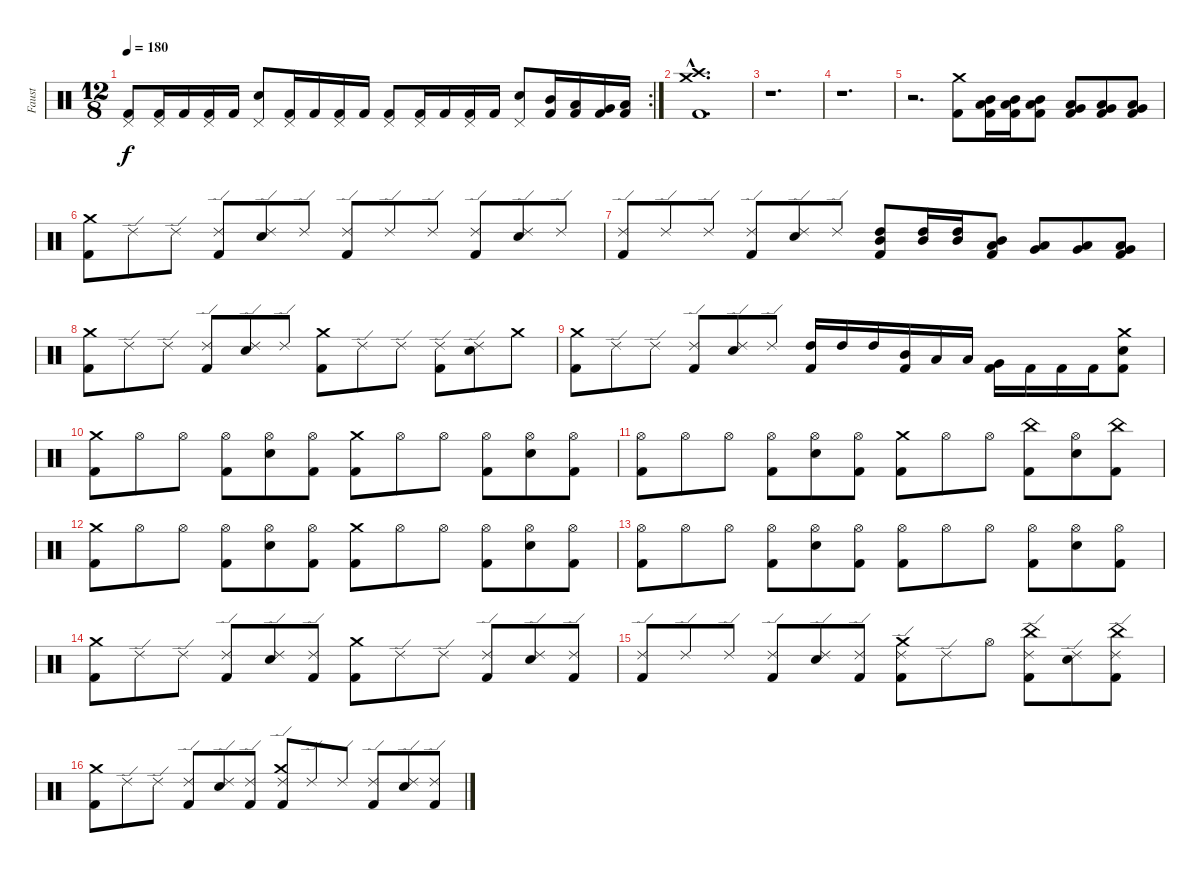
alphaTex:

\track ("Faust" "Faust") {instrument percussion}
\staff {score}
\articulation defaults
\rc 2
\ts (12 8)
\tempo 180
\clef neutral
\ks c
("Pedal Hi-Hat (hit)" "Kick (hit) 2").8{dy f} ("Pedal Hi-Hat (hit)" "Kick (hit) 2").16 "Kick (hit) 2".16 ("Pedal Hi-Hat (hit)" "Kick (hit) 2").16 "Kick (hit) 2".16 ("Pedal Hi-Hat (hit)" "Electric Snare (hit)").8 ("Pedal Hi-Hat (hit)" "Kick (hit) 2").16 "Kick (hit) 2".16 ("Pedal Hi-Hat (hit)" "Kick (hit) 2").16 "Kick (hit) 2".16 ("Pedal Hi-Hat (hit)" "Kick (hit) 2").8 ("Pedal Hi-Hat (hit)" "Kick (hit) 2").16 "Kick (hit) 2".16 ("Pedal Hi-Hat (hit)" "Kick (hit) 2").16 "Kick (hit) 2".16 ("Pedal Hi-Hat (hit)" "Electric Snare (hit)").8 ("Mid Tom (hit)" "Kick (hit) 2").16 ("Low Tom (hit)" "Kick (hit) 2").16 ("Very Low Tom (hit)" "Kick (hit) 2").16 ("Low Floor Tom (hit)" "Kick (hit) 2").16 |
("Crash high (hit)"{hac} "Crash medium (hit)"{hac} "Kick (hit) 2"{hac}).1{d} |
r.1{d} |
r.1{d} |
r.2{d} ("Crash medium (hit)" "Kick (hit) 2").8 ("Low Tom (hit)" "Mid Tom (hit)" "Kick (hit) 2").16 ("Low Tom (hit)" "Mid Tom (hit)" "Kick (hit) 2").16 ("Low Tom (hit)" "Mid Tom (hit)" "Kick (hit) 2").8 ("Very Low Tom (hit)" "Low Tom (hit)" "Kick (hit) 2").8 ("Low Floor Tom (hit)" "Very Low Tom (hit)" "Kick (hit) 2").8 ("Low Floor Tom (hit)" "Very Low Tom (hit)" "Kick (hit) 2").8 |
("Crash medium (hit)" "Kick (hit) 2").8 "Ride (edge) 2".8 "Ride (edge) 2".8 ("Ride (edge) 2" "Kick (hit) 2").8 ("Ride (edge) 2" "Electric Snare (hit)").8 "Ride (edge) 2".8 ("Ride (edge) 2" "Kick (hit) 2").8 "Ride (edge) 2".8 "Ride (edge) 2".8 ("Ride (edge) 2" "Kick (hit) 2").8 ("Ride (edge) 2" "Electric Snare (hit)").8 "Ride (edge) 2".8 |
("Ride (edge) 2" "Kick (hit) 2").8 "Ride (edge) 2".8 "Ride (edge) 2".8 ("Ride (edge) 2" "Kick (hit) 2").8 ("Ride (edge) 2" "Electric Snare (hit)").8 "Ride (edge) 2".8 ("Mid Tom (hit)" "High Tom (hit)" "Kick (hit) 2").8 ("Mid Tom (hit)" "High Tom (hit)").16 ("Mid Tom (hit)" "High Tom (hit)").16 ("Low Tom (hit)" "Mid Tom (hit)" "Kick (hit) 2").8 ("Very Low Tom (hit)" "Low Tom (hit)").8 ("Very Low Tom (hit)" "Low Tom (hit)").8 ("Low Floor Tom (hit)" "Very Low Tom (hit)" "Kick (hit) 2").8 |
("Crash medium (hit)" "Kick (hit) 2").8 "Ride (edge) 2".8 "Ride (edge) 2".8 ("Ride (edge) 2" "Kick (hit) 2").8 ("Ride (edge) 2" "Electric Snare (hit)").8 "Ride (edge) 2".8 ("Crash medium (hit)" "Kick (hit) 2").8 "Ride (edge) 2".8 "Ride (edge) 2".8 ("Ride (edge) 2" "Kick (hit) 2").8 ("Ride (edge) 2" "Electric Snare (hit)").8 "Crash medium (hit)".8 |
("Crash medium (hit)" "Kick (hit) 2").8 "Ride (edge) 2".8 "Ride (edge) 2".8 ("Ride (edge) 2" "Kick (hit) 2").8 ("Ride (edge) 2" "Electric Snare (hit)").8 "Ride (edge) 2".8 ("High Tom (hit)" "Kick (hit) 2").16 "High Tom (hit)".16 "High Tom (hit)".16 ("Mid Tom (hit)" "Kick (hit) 2").16 "Low Tom (hit)".16 "Low Tom (hit)".16 ("Very Low Tom (hit)" "Kick (hit) 2").16 "Kick (hit) 2".16 "Kick (hit) 2".16 "Kick (hit) 2".16 ("Crash medium (hit)" "Electric Snare (hit)" "Kick (hit) 2").8 |
("Crash medium (hit)" "Kick (hit) 2").8 "Hi-Hat (open)".8 "Hi-Hat (open)".8 ("Hi-Hat (open)" "Kick (hit) 2").8 ("Hi-Hat (open)" "Electric Snare (hit)").8 ("Hi-Hat (open)" "Kick (hit) 2").8 ("Crash medium (hit)" "Kick (hit) 2").8 "Hi-Hat (open)".8 "Hi-Hat (open)".8 ("Hi-Hat (open)" "Kick (hit) 2").8 ("Hi-Hat (open)" "Electric Snare (hit)").8 ("Hi-Hat (open)" "Kick (hit) 2").8 |
("Hi-Hat (open)" "Kick (hit) 2").8 "Hi-Hat (open)".8 "Hi-Hat (open)".8 ("Hi-Hat (open)" "Kick (hit) 2").8 ("Hi-Hat (open)" "Electric Snare (hit)").8 ("Hi-Hat (open)" "Kick (hit) 2").8 ("Crash medium (hit)" "Kick (hit) 2").8 "Hi-Hat (open)".8 "Hi-Hat (open)".8 ("China (hit)" "Kick (hit) 2").8 ("Hi-Hat (open)" "Electric Snare (hit)").8 ("China (hit)" "Kick (hit) 2").8 |
("Crash medium (hit)" "Kick (hit) 2").8 "Hi-Hat (open)".8 "Hi-Hat (open)".8 ("Hi-Hat (open)" "Kick (hit) 2").8 ("Hi-Hat (open)" "Electric Snare (hit)").8 ("Hi-Hat (open)" "Kick (hit) 2").8 ("Crash medium (hit)" "Kick (hit) 2").8 "Hi-Hat (open)".8 "Hi-Hat (open)".8 ("Hi-Hat (open)" "Kick (hit) 2").8 ("Hi-Hat (open)" "Electric Snare (hit)").8 ("Hi-Hat (open)" "Kick (hit) 2").8 |
("Hi-Hat (open)" "Kick (hit) 2").8 "Hi-Hat (open)".8 "Hi-Hat (open)".8 ("Hi-Hat (open)" "Kick (hit) 2").8 ("Hi-Hat (open)" "Electric Snare (hit)").8 ("Hi-Hat (open)" "Kick (hit) 2").8 ("Hi-Hat (open)" "Kick (hit) 2").8 "Hi-Hat (open)".8 "Hi-Hat (open)".8 ("Hi-Hat (open)" "Kick (hit) 2").8 ("Hi-Hat (open)" "Electric Snare (hit)").8 ("Hi-Hat (open)" "Kick (hit) 2").8 |
("Crash medium (hit)" "Kick (hit) 2").8 "Ride (edge) 2".8 "Ride (edge) 2".8 ("Ride (edge) 2" "Kick (hit) 2").8 ("Ride (edge) 2" "Electric Snare (hit)").8 ("Ride (edge) 2" "Kick (hit) 2").8 ("Crash medium (hit)" "Kick (hit) 2").8 "Ride (edge) 2".8 "Ride (edge) 2".8 ("Ride (edge) 2" "Kick (hit) 2").8 ("Ride (edge) 2" "Electric Snare (hit)").8 ("Ride (edge) 2" "Kick (hit) 2").8 |
("Ride (edge) 2" "Kick (hit) 2").8 "Ride (edge) 2".8 "Ride (edge) 2".8 ("Ride (edge) 2" "Kick (hit) 2").8 ("Ride (edge) 2" "Electric Snare (hit)").8 ("Ride (edge) 2" "Kick (hit) 2").8 ("Crash medium (hit)" "Ride (edge) 2" "Kick (hit) 2").8 "Ride (edge) 2".8 "Hi-Hat (open)".8 ("China (hit)" "Ride (edge) 2" "Kick (hit) 2").8 ("Ride (edge) 2" "Electric Snare (hit)").8 ("China (hit)" "Ride (edge) 2" "Kick (hit) 2").8 |
("Crash medium (hit)" "Kick (hit) 2").8 "Ride (edge) 2".8 "Ride (edge) 2".8 ("Ride (edge) 2" "Kick (hit) 2").8 ("Ride (edge) 2" "Electric Snare (hit)").8 ("Ride (edge) 2" "Kick (hit) 2").8 ("Crash medium (hit)" "Ride (edge) 2" "Kick (hit) 2").8 "Ride (edge) 2".8 "Ride (edge) 2".8 ("Ride (edge) 2" "Kick (hit) 2").8 ("Ride (edge) 2" "Electric Snare (hit)").8 ("Ride (edge) 2" "Kick (hit) 2").8
